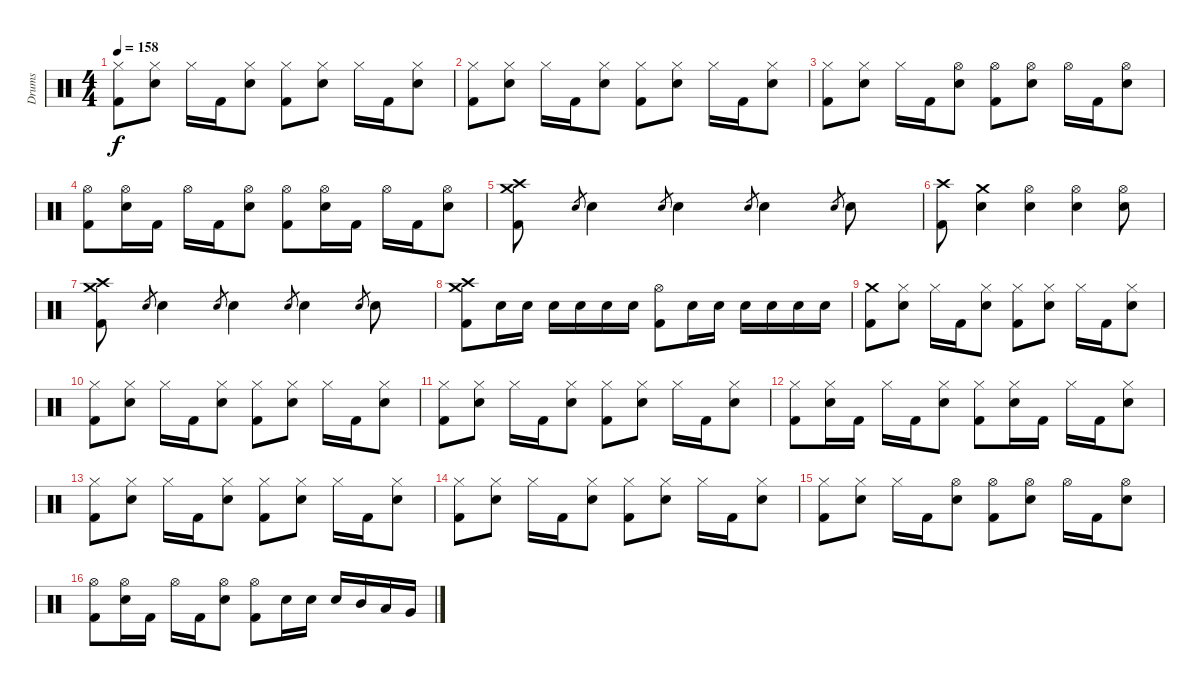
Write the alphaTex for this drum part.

\track ("Drums" "Drums") {instrument percussion}
\staff {score}
\articulation defaults
\ts (4 4)
\tempo 158
\clef neutral
\ks c
("Hi-Hat (closed)" "Kick (hit) 2").8{dy f} ("Hi-Hat (closed)" "Electric Snare (hit)").8 "Hi-Hat (closed)".16 "Kick (hit) 2".16 ("Hi-Hat (closed)" "Electric Snare (hit)").8 ("Hi-Hat (closed)" "Kick (hit) 2").8 ("Hi-Hat (closed)" "Electric Snare (hit)").8 "Hi-Hat (closed)".16 "Kick (hit) 2".16 ("Hi-Hat (closed)" "Electric Snare (hit)").8 |
("Hi-Hat (closed)" "Kick (hit) 2").8 ("Hi-Hat (closed)" "Electric Snare (hit)").8 "Hi-Hat (closed)".16 "Kick (hit) 2".16 ("Hi-Hat (closed)" "Electric Snare (hit)").8 ("Hi-Hat (closed)" "Kick (hit) 2").8 ("Hi-Hat (closed)" "Electric Snare (hit)").8 "Hi-Hat (closed)".16 "Kick (hit) 2".16 ("Hi-Hat (closed)" "Electric Snare (hit)").8 |
("Hi-Hat (closed)" "Kick (hit) 2").8 ("Hi-Hat (closed)" "Electric Snare (hit)").8 "Hi-Hat (closed)".16 "Kick (hit) 2".16 ("Hi-Hat (open)" "Electric Snare (hit)").8 ("Hi-Hat (open)" "Kick (hit) 2").8 ("Hi-Hat (open)" "Electric Snare (hit)").8 "Hi-Hat (open)".16 "Kick (hit) 2".16 ("Hi-Hat (open)" "Electric Snare (hit)").8 |
("Hi-Hat (open)" "Kick (hit) 2").8 ("Hi-Hat (open)" "Electric Snare (hit)").16 "Kick (hit) 2".16 "Hi-Hat (open)".16 "Kick (hit) 2".16 ("Hi-Hat (open)" "Electric Snare (hit)").8 ("Hi-Hat (open)" "Kick (hit) 2").8 ("Hi-Hat (open)" "Electric Snare (hit)").16 "Kick (hit) 2".16 "Hi-Hat (open)".16 "Kick (hit) 2".16 ("Hi-Hat (open)" "Electric Snare (hit)").8 |
("Crash medium (hit)" "Crash high (hit)" "Kick (hit) 2").8 "Electric Snare (hit)".8{gr} "Electric Snare (hit)".4 "Electric Snare (hit)".8{gr} "Electric Snare (hit)".4 "Electric Snare (hit)".8{gr} "Electric Snare (hit)".4 "Electric Snare (hit)".8{gr} "Electric Snare (hit)".8 |
("Crash high (hit)" "Kick (hit) 2").8 ("Crash medium (hit)" "Electric Snare (hit)").4 ("Hi-Hat (open)" "Electric Snare (hit)").4 ("Hi-Hat (open)" "Electric Snare (hit)").4 ("Hi-Hat (open)" "Electric Snare (hit)").8 |
("Crash medium (hit)" "Crash high (hit)" "Kick (hit) 2").8 "Electric Snare (hit)".8{gr} "Electric Snare (hit)".4 "Electric Snare (hit)".8{gr} "Electric Snare (hit)".4 "Electric Snare (hit)".8{gr} "Electric Snare (hit)".4 "Electric Snare (hit)".8{gr} "Electric Snare (hit)".8 |
("Crash medium (hit)" "Crash high (hit)" "Kick (hit) 2").8 "Electric Snare (hit)".16 "Electric Snare (hit)".16 "Electric Snare (hit)".16 "Electric Snare (hit)".16 "Electric Snare (hit)".16 "Electric Snare (hit)".16 ("Hi-Hat (open)" "Kick (hit) 2").8 "Electric Snare (hit)".16 "Electric Snare (hit)".16 "Electric Snare (hit)".16 "Electric Snare (hit)".16 "Electric Snare (hit)".16 "Electric Snare (hit)".16 |
("Crash medium (hit)" "Kick (hit) 2").8 ("Hi-Hat (closed)" "Electric Snare (hit)").8 "Hi-Hat (closed)".16 "Kick (hit) 2".16 ("Hi-Hat (closed)" "Electric Snare (hit)").8 ("Hi-Hat (closed)" "Kick (hit) 2").8 ("Hi-Hat (closed)" "Electric Snare (hit)").8 "Hi-Hat (closed)".16 "Kick (hit) 2".16 ("Hi-Hat (closed)" "Electric Snare (hit)").8 |
("Hi-Hat (closed)" "Kick (hit) 2").8 ("Hi-Hat (closed)" "Electric Snare (hit)").8 "Hi-Hat (closed)".16 "Kick (hit) 2".16 ("Hi-Hat (closed)" "Electric Snare (hit)").8 ("Hi-Hat (closed)" "Kick (hit) 2").8 ("Hi-Hat (closed)" "Electric Snare (hit)").8 "Hi-Hat (closed)".16 "Kick (hit) 2".16 ("Hi-Hat (closed)" "Electric Snare (hit)").8 |
("Hi-Hat (closed)" "Kick (hit) 2").8 ("Hi-Hat (closed)" "Electric Snare (hit)").8 "Hi-Hat (closed)".16 "Kick (hit) 2".16 ("Hi-Hat (closed)" "Electric Snare (hit)").8 ("Hi-Hat (closed)" "Kick (hit) 2").8 ("Hi-Hat (closed)" "Electric Snare (hit)").8 "Hi-Hat (closed)".16 "Kick (hit) 2".16 ("Hi-Hat (closed)" "Electric Snare (hit)").8 |
("Hi-Hat (closed)" "Kick (hit) 2").8 ("Hi-Hat (closed)" "Electric Snare (hit)").16 "Kick (hit) 2".16 "Hi-Hat (closed)".16 "Kick (hit) 2".16 ("Hi-Hat (closed)" "Electric Snare (hit)").8 ("Hi-Hat (closed)" "Kick (hit) 2").8 ("Hi-Hat (closed)" "Electric Snare (hit)").16 "Kick (hit) 2".16 "Hi-Hat (closed)".16 "Kick (hit) 2".16 ("Hi-Hat (closed)" "Electric Snare (hit)").8 |
("Hi-Hat (closed)" "Kick (hit) 2").8 ("Hi-Hat (closed)" "Electric Snare (hit)").8 "Hi-Hat (closed)".16 "Kick (hit) 2".16 ("Hi-Hat (closed)" "Electric Snare (hit)").8 ("Hi-Hat (closed)" "Kick (hit) 2").8 ("Hi-Hat (closed)" "Electric Snare (hit)").8 "Hi-Hat (closed)".16 "Kick (hit) 2".16 ("Hi-Hat (closed)" "Electric Snare (hit)").8 |
("Hi-Hat (closed)" "Kick (hit) 2").8 ("Hi-Hat (closed)" "Electric Snare (hit)").8 "Hi-Hat (closed)".16 "Kick (hit) 2".16 ("Hi-Hat (closed)" "Electric Snare (hit)").8 ("Hi-Hat (closed)" "Kick (hit) 2").8 ("Hi-Hat (closed)" "Electric Snare (hit)").8 "Hi-Hat (closed)".16 "Kick (hit) 2".16 ("Hi-Hat (closed)" "Electric Snare (hit)").8 |
("Hi-Hat (closed)" "Kick (hit) 2").8 ("Hi-Hat (closed)" "Electric Snare (hit)").8 "Hi-Hat (closed)".16 "Kick (hit) 2".16 ("Hi-Hat (open)" "Electric Snare (hit)").8 ("Hi-Hat (open)" "Kick (hit) 2").8 ("Hi-Hat (open)" "Electric Snare (hit)").8 "Hi-Hat (open)".16 "Kick (hit) 2".16 ("Hi-Hat (open)" "Electric Snare (hit)").8 |
("Hi-Hat (open)" "Kick (hit) 2").8 ("Hi-Hat (open)" "Electric Snare (hit)").16 "Kick (hit) 2".16 "Hi-Hat (open)".16 "Kick (hit) 2".16 ("Hi-Hat (open)" "Electric Snare (hit)").8 ("Hi-Hat (open)" "Kick (hit) 2").8 "Electric Snare (hit)".16 "Electric Snare (hit)".16 "Electric Snare (hit)".16 "Mid Tom (hit)".16 "Low Tom (hit)".16 "Very Low Tom (hit)".16
